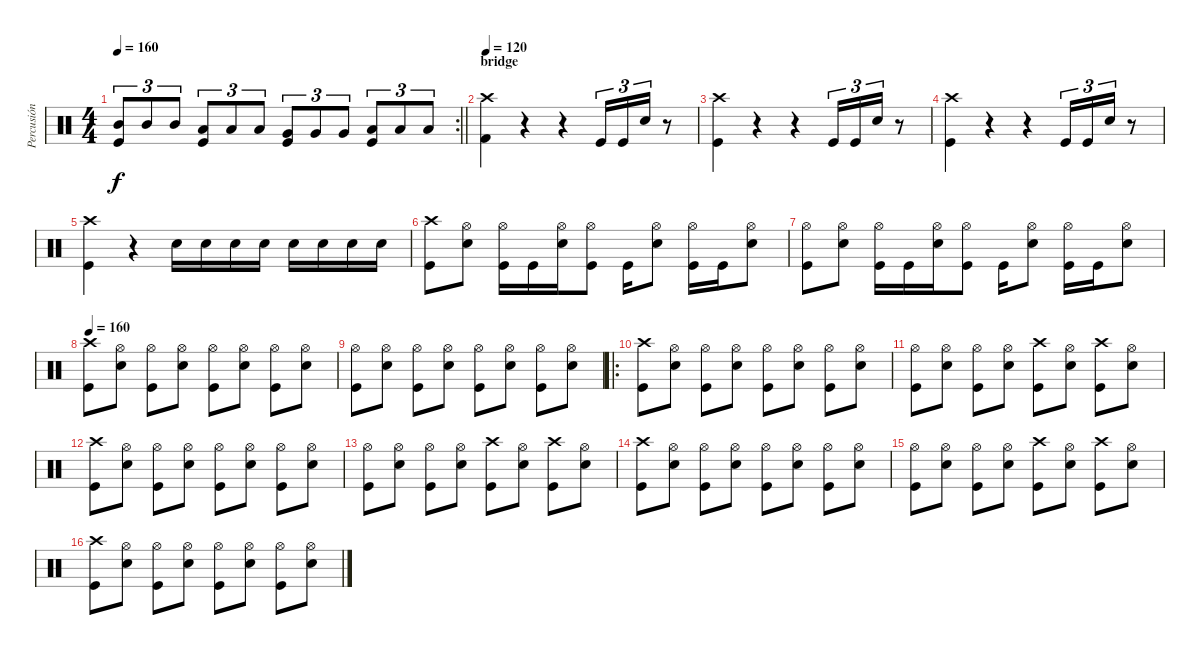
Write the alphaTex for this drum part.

\track ("Percusión" "Percusión") {instrument percussion}
\staff
\articulation defaults
\rc 2
\ts (4 4)
\tempo 160
\clef neutral
\barLineRight lightlight
\ks c
("Kick (hit)" "Mid Tom (hit)").8{tu (3 2) dy f} "Mid Tom (hit)".8{tu (3 2)} "Mid Tom (hit)".8{tu (3 2)} ("Kick (hit)" "Low Tom (hit)").8{tu (3 2)} "Low Tom (hit)".8{tu (3 2)} "Low Tom (hit)".8{tu (3 2)} ("Kick (hit)" "Very Low Tom (hit)").8{tu (3 2)} "Very Low Tom (hit)".8{tu (3 2)} "Very Low Tom (hit)".8{tu (3 2)} ("Kick (hit)" "Low Floor Tom (hit)").8{tu (3 2)} "Low Floor Tom (hit)".8{tu (3 2)} "Low Floor Tom (hit)".8{tu (3 2)} |
\section ("" "bridge")
\tempo 120
("Kick (hit) 2" "Crash high (hit)").4 r.4 r.4 "Kick (hit)".16{tu (3 2)} "Kick (hit)".16{tu (3 2)} "Electric Snare (hit)".16{tu (3 2)} r.8 |
("Kick (hit)" "Crash high (hit)").4 r.4 r.4 "Kick (hit)".16{tu (3 2)} "Kick (hit)".16{tu (3 2)} "Electric Snare (hit)".16{tu (3 2)} r.8 |
("Kick (hit)" "Crash high (hit)").4 r.4 r.4 "Kick (hit)".16{tu (3 2)} "Kick (hit)".16{tu (3 2)} "Electric Snare (hit)".16{tu (3 2)} r.8 |
("Kick (hit)" "Crash high (hit)").4 r.4 "Electric Snare (hit)".16 "Electric Snare (hit)".16 "Electric Snare (hit)".16 "Electric Snare (hit)".16 "Electric Snare (hit)".16 "Electric Snare (hit)".16 "Electric Snare (hit)".16 "Electric Snare (hit)".16 |
("Kick (hit)" "Crash high (hit)").8 ("Hi-Hat (open)" "Electric Snare (hit)").8 ("Kick (hit)" "Hi-Hat (open)").16 "Kick (hit)".16 ("Hi-Hat (open)" "Electric Snare (hit)").16 ("Kick (hit)" "Hi-Hat (open)").8 "Kick (hit)".16 ("Hi-Hat (open)" "Electric Snare (hit)").8 ("Kick (hit)" "Hi-Hat (open)").16 "Kick (hit)".16 ("Hi-Hat (open)" "Electric Snare (hit)").8 |
("Kick (hit)" "Hi-Hat (open)").8 ("Hi-Hat (open)" "Electric Snare (hit)").8 ("Kick (hit)" "Hi-Hat (open)").16 "Kick (hit)".16 ("Hi-Hat (open)" "Electric Snare (hit)").16 ("Kick (hit)" "Hi-Hat (open)").8 "Kick (hit)".16 ("Hi-Hat (open)" "Electric Snare (hit)").8 ("Kick (hit)" "Hi-Hat (open)").16 "Kick (hit)".16 ("Hi-Hat (open)" "Electric Snare (hit)").8 |
\tempo 160
("Kick (hit)" "Crash high (hit)").8 ("Hi-Hat (open)" "Electric Snare (hit)").8 ("Kick (hit)" "Hi-Hat (open)").8 ("Hi-Hat (open)" "Electric Snare (hit)").8 ("Kick (hit)" "Hi-Hat (open)").8 ("Hi-Hat (open)" "Electric Snare (hit)").8 ("Kick (hit)" "Hi-Hat (open)").8 ("Hi-Hat (open)" "Electric Snare (hit)").8 |
("Kick (hit)" "Hi-Hat (open)").8 ("Hi-Hat (open)" "Electric Snare (hit)").8 ("Kick (hit)" "Hi-Hat (open)").8 ("Hi-Hat (open)" "Electric Snare (hit)").8 ("Kick (hit)" "Hi-Hat (open)").8 ("Hi-Hat (open)" "Electric Snare (hit)").8 ("Kick (hit)" "Hi-Hat (open)").8 ("Hi-Hat (open)" "Electric Snare (hit)").8 |
\ro
("Kick (hit)" "Crash high (hit)").8 ("Hi-Hat (open)" "Electric Snare (hit)").8 ("Kick (hit)" "Hi-Hat (open)").8 ("Hi-Hat (open)" "Electric Snare (hit)").8 ("Kick (hit)" "Hi-Hat (open)").8 ("Hi-Hat (open)" "Electric Snare (hit)").8 ("Kick (hit)" "Hi-Hat (open)").8 ("Hi-Hat (open)" "Electric Snare (hit)").8 |
("Kick (hit)" "Hi-Hat (open)").8 ("Hi-Hat (open)" "Electric Snare (hit)").8 ("Kick (hit)" "Hi-Hat (open)").8 ("Hi-Hat (open)" "Electric Snare (hit)").8 ("Kick (hit)" "Crash high (hit)").8 ("Hi-Hat (open)" "Electric Snare (hit)").8 ("Kick (hit)" "Crash high (hit)").8 ("Hi-Hat (open)" "Electric Snare (hit)").8 |
("Kick (hit)" "Crash high (hit)").8 ("Hi-Hat (open)" "Electric Snare (hit)").8 ("Kick (hit)" "Hi-Hat (open)").8 ("Hi-Hat (open)" "Electric Snare (hit)").8 ("Kick (hit)" "Hi-Hat (open)").8 ("Hi-Hat (open)" "Electric Snare (hit)").8 ("Kick (hit)" "Hi-Hat (open)").8 ("Hi-Hat (open)" "Electric Snare (hit)").8 |
("Kick (hit)" "Hi-Hat (open)").8 ("Hi-Hat (open)" "Electric Snare (hit)").8 ("Kick (hit)" "Hi-Hat (open)").8 ("Hi-Hat (open)" "Electric Snare (hit)").8 ("Kick (hit)" "Crash high (hit)").8 ("Hi-Hat (open)" "Electric Snare (hit)").8 ("Kick (hit)" "Crash high (hit)").8 ("Hi-Hat (open)" "Electric Snare (hit)").8 |
("Kick (hit)" "Crash high (hit)").8 ("Hi-Hat (open)" "Electric Snare (hit)").8 ("Kick (hit)" "Hi-Hat (open)").8 ("Hi-Hat (open)" "Electric Snare (hit)").8 ("Kick (hit)" "Hi-Hat (open)").8 ("Hi-Hat (open)" "Electric Snare (hit)").8 ("Kick (hit)" "Hi-Hat (open)").8 ("Hi-Hat (open)" "Electric Snare (hit)").8 |
("Kick (hit)" "Hi-Hat (open)").8 ("Hi-Hat (open)" "Electric Snare (hit)").8 ("Kick (hit)" "Hi-Hat (open)").8 ("Hi-Hat (open)" "Electric Snare (hit)").8 ("Kick (hit)" "Crash high (hit)").8 ("Hi-Hat (open)" "Electric Snare (hit)").8 ("Kick (hit)" "Crash high (hit)").8 ("Hi-Hat (open)" "Electric Snare (hit)").8 |
("Kick (hit)" "Crash high (hit)").8 ("Hi-Hat (open)" "Electric Snare (hit)").8 ("Kick (hit)" "Hi-Hat (open)").8 ("Hi-Hat (open)" "Electric Snare (hit)").8 ("Kick (hit)" "Hi-Hat (open)").8 ("Hi-Hat (open)" "Electric Snare (hit)").8 ("Kick (hit)" "Hi-Hat (open)").8 ("Hi-Hat (open)" "Electric Snare (hit)").8
